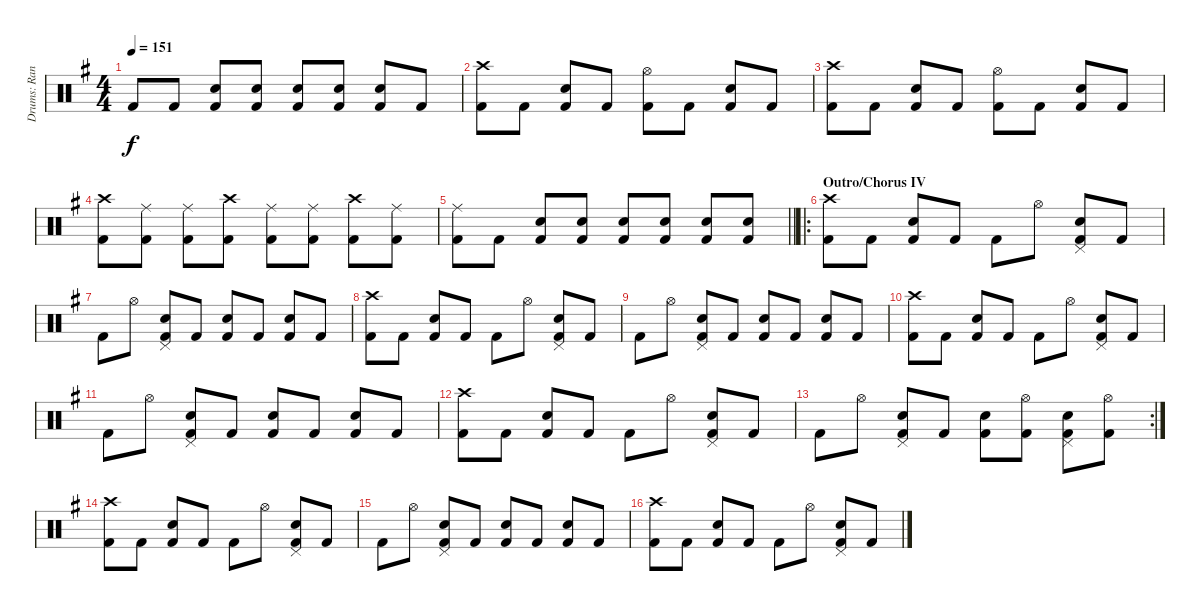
\track ("Drums: Randy" "Drums: Ran") {instrument percussion}
\staff {score}
\articulation defaults
\ts (4 4)
\tempo 151
\clef neutral
\ks g "Kick (hit) 2".8{dy f} "Kick (hit) 2".8
("Snare (hit) 2" "Kick (hit) 2").8 ("Snare (hit) 2" "Kick (hit) 2").8 ("Snare (hit) 2" "Kick (hit) 2").8 ("Snare (hit) 2" "Kick (hit) 2").8 ("Snare (hit) 2" "Kick (hit) 2").8 "Kick (hit) 2".8 |
("Crash high (hit)" "Kick (hit) 2").8 "Kick (hit) 2".8 ("Snare (hit) 2" "Kick (hit) 2").8 "Kick (hit) 2".8 ("Hi-Hat (open)" "Kick (hit) 2").8 "Kick (hit) 2".8 ("Snare (hit) 2" "Kick (hit) 2").8 "Kick (hit) 2".8 |
("Crash high (hit)" "Kick (hit) 2").8 "Kick (hit) 2".8 ("Snare (hit) 2" "Kick (hit) 2").8 "Kick (hit) 2".8 ("Hi-Hat (open)" "Kick (hit) 2").8 "Kick (hit) 2".8 ("Snare (hit) 2" "Kick (hit) 2").8 "Kick (hit) 2".8 |
("Crash high (hit)" "Kick (hit) 2").8 ("Ride (middle)" "Kick (hit) 2").8 ("Ride (middle)" "Kick (hit) 2").8 ("Crash high (hit)" "Kick (hit) 2").8 ("Ride (middle)" "Kick (hit) 2").8 ("Ride (middle)" "Kick (hit) 2").8 ("Crash high (hit)" "Kick (hit) 2").8 ("Ride (middle)" "Kick (hit) 2").8 |
\barLineRight lightlight
("Ride (middle)" "Kick (hit) 2").8 "Kick (hit) 2".8 ("Snare (hit) 2" "Kick (hit) 2").8 ("Snare (hit) 2" "Kick (hit) 2").8 ("Snare (hit) 2" "Kick (hit) 2").8 ("Snare (hit) 2" "Kick (hit) 2").8 ("Snare (hit) 2" "Kick (hit) 2").8 ("Snare (hit) 2" "Kick (hit) 2").8 |
\ro
\section ("" "Outro/Chorus IV")
("Crash high (hit)" "Kick (hit) 2").8 "Kick (hit) 2".8 ("Snare (hit) 2" "Kick (hit) 2").8 "Kick (hit) 2".8 "Kick (hit) 2".8 "Hi-Hat (open)".8 ("Pedal Hi-Hat (hit)" "Snare (hit) 2" "Kick (hit) 2").8 "Kick (hit) 2".8 |
"Kick (hit) 2".8 "Hi-Hat (open)".8 ("Pedal Hi-Hat (hit)" "Snare (hit) 2" "Kick (hit) 2").8 "Kick (hit) 2".8 ("Snare (hit) 2" "Kick (hit) 2").8 "Kick (hit) 2".8 ("Snare (hit) 2" "Kick (hit) 2").8 "Kick (hit) 2".8 |
("Crash high (hit)" "Kick (hit) 2").8 "Kick (hit) 2".8 ("Snare (hit) 2" "Kick (hit) 2").8 "Kick (hit) 2".8 "Kick (hit) 2".8 "Hi-Hat (open)".8 ("Pedal Hi-Hat (hit)" "Snare (hit) 2" "Kick (hit) 2").8 "Kick (hit) 2".8 |
"Kick (hit) 2".8 "Hi-Hat (open)".8 ("Pedal Hi-Hat (hit)" "Snare (hit) 2" "Kick (hit) 2").8 "Kick (hit) 2".8 ("Snare (hit) 2" "Kick (hit) 2").8 "Kick (hit) 2".8 ("Snare (hit) 2" "Kick (hit) 2").8 "Kick (hit) 2".8 |
("Crash high (hit)" "Kick (hit) 2").8 "Kick (hit) 2".8 ("Snare (hit) 2" "Kick (hit) 2").8 "Kick (hit) 2".8 "Kick (hit) 2".8 "Hi-Hat (open)".8 ("Pedal Hi-Hat (hit)" "Snare (hit) 2" "Kick (hit) 2").8 "Kick (hit) 2".8 |
"Kick (hit) 2".8 "Hi-Hat (open)".8 ("Pedal Hi-Hat (hit)" "Snare (hit) 2" "Kick (hit) 2").8 "Kick (hit) 2".8 ("Snare (hit) 2" "Kick (hit) 2").8 "Kick (hit) 2".8 ("Snare (hit) 2" "Kick (hit) 2").8 "Kick (hit) 2".8 |
("Crash high (hit)" "Kick (hit) 2").8 "Kick (hit) 2".8 ("Snare (hit) 2" "Kick (hit) 2").8 "Kick (hit) 2".8 "Kick (hit) 2".8 "Hi-Hat (open)".8 ("Pedal Hi-Hat (hit)" "Snare (hit) 2" "Kick (hit) 2").8 "Kick (hit) 2".8 |
\rc 2 "Kick (hit) 2".8 "Hi-Hat (open)".8
("Pedal Hi-Hat (hit)" "Snare (hit) 2" "Kick (hit) 2").8 "Kick (hit) 2".8 ("Snare (hit) 2" "Kick (hit) 2").8 ("Hi-Hat (open)" "Kick (hit) 2").8 ("Pedal Hi-Hat (hit)" "Snare (hit) 2" "Kick (hit) 2").8 ("Hi-Hat (open)" "Kick (hit) 2").8 |
("Crash high (hit)" "Kick (hit) 2").8 "Kick (hit) 2".8 ("Snare (hit) 2" "Kick (hit) 2").8 "Kick (hit) 2".8 "Kick (hit) 2".8 "Hi-Hat (open)".8 ("Pedal Hi-Hat (hit)" "Snare (hit) 2" "Kick (hit) 2").8 "Kick (hit) 2".8 |
"Kick (hit) 2".8 "Hi-Hat (open)".8 ("Pedal Hi-Hat (hit)" "Snare (hit) 2" "Kick (hit) 2").8 "Kick (hit) 2".8 ("Snare (hit) 2" "Kick (hit) 2").8 "Kick (hit) 2".8 ("Snare (hit) 2" "Kick (hit) 2").8 "Kick (hit) 2".8 |
("Crash high (hit)" "Kick (hit) 2").8 "Kick (hit) 2".8 ("Snare (hit) 2" "Kick (hit) 2").8 "Kick (hit) 2".8 "Kick (hit) 2".8 "Hi-Hat (open)".8 ("Pedal Hi-Hat (hit)" "Snare (hit) 2" "Kick (hit) 2").8 "Kick (hit) 2".8
